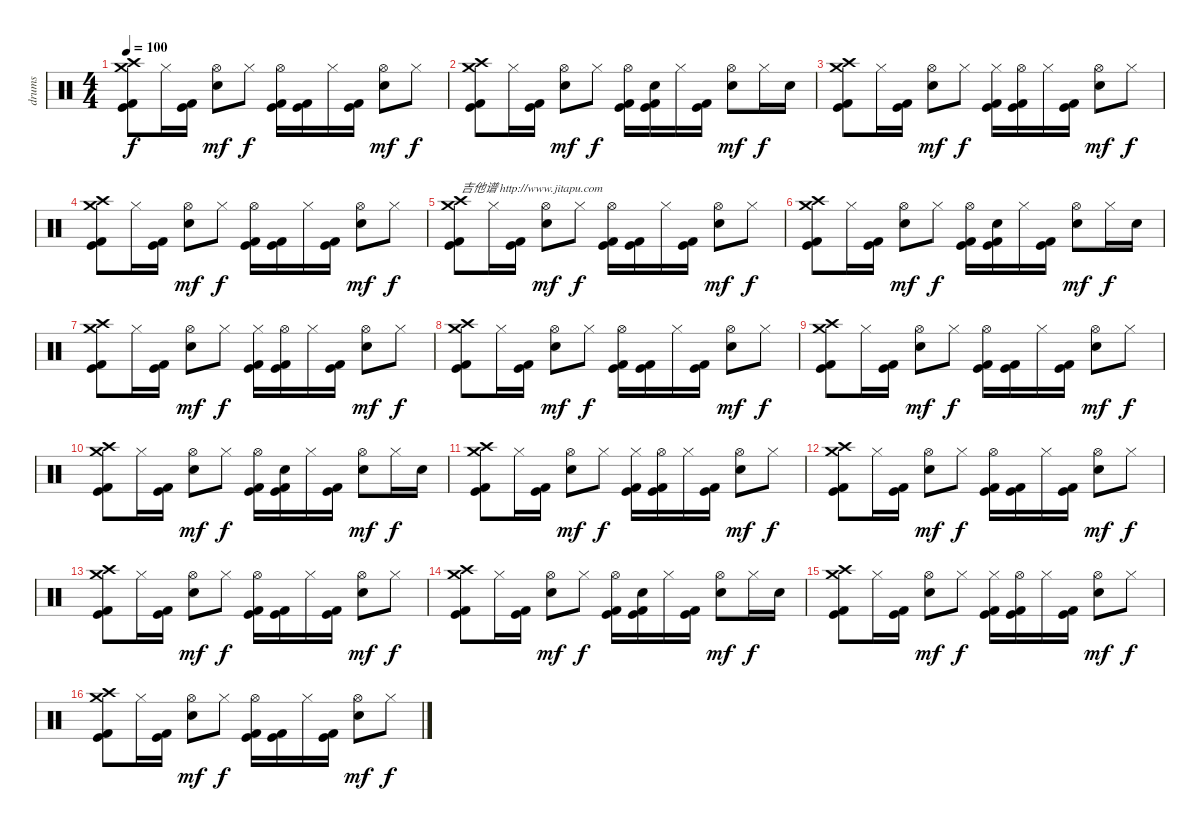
\track ("drums" "drums") {instrument percussion}
\staff {score}
\articulation defaults
\ts (4 4)
\tempo 100
\clef neutral
\ks c
("Crash high (hit)" "Crash medium (hit)" "Kick (hit) 2" "Kick (hit)").8{dy f} "Hi-Hat (closed)".16 ("Kick (hit) 2" "Kick (hit)").16 ("Hi-Hat (open)" "Electric Snare (hit)").8{dy mf} "Hi-Hat (closed)".8{dy f} ("Hi-Hat (open)" "Kick (hit) 2" "Kick (hit)").16 ("Kick (hit) 2" "Kick (hit)").16 "Hi-Hat (closed)".16 ("Kick (hit) 2" "Kick (hit)").16 ("Hi-Hat (open)" "Electric Snare (hit)").8{dy mf} "Hi-Hat (closed)".8{dy f} |
("Crash high (hit)" "Crash medium (hit)" "Kick (hit) 2" "Kick (hit)").8 "Hi-Hat (closed)".16 ("Kick (hit) 2" "Kick (hit)").16 ("Hi-Hat (open)" "Electric Snare (hit)").8{dy mf} "Hi-Hat (closed)".8{dy f} ("Hi-Hat (open)" "Kick (hit) 2" "Kick (hit)").16 ("Electric Snare (hit)" "Kick (hit) 2" "Kick (hit)").16 "Hi-Hat (closed)".16 ("Kick (hit) 2" "Kick (hit)").16 ("Hi-Hat (open)" "Electric Snare (hit)").8{dy mf} "Hi-Hat (closed)".16{dy f} "Electric Snare (hit)".16 |
("Crash high (hit)" "Crash medium (hit)" "Kick (hit) 2" "Kick (hit)").8 "Hi-Hat (closed)".16 ("Kick (hit) 2" "Kick (hit)").16 ("Hi-Hat (open)" "Electric Snare (hit)").8{dy mf} "Hi-Hat (closed)".8{dy f} ("Hi-Hat (closed)" "Kick (hit) 2" "Kick (hit)").16 ("Hi-Hat (open)" "Kick (hit) 2" "Kick (hit)").16 "Hi-Hat (closed)".16 ("Kick (hit) 2" "Kick (hit)").16 ("Hi-Hat (open)" "Electric Snare (hit)").8{dy mf} "Hi-Hat (closed)".8{dy f} |
("Crash high (hit)" "Crash medium (hit)" "Kick (hit) 2" "Kick (hit)").8 "Hi-Hat (closed)".16 ("Kick (hit) 2" "Kick (hit)").16 ("Hi-Hat (open)" "Electric Snare (hit)").8{dy mf} "Hi-Hat (closed)".8{dy f} ("Hi-Hat (open)" "Kick (hit) 2" "Kick (hit)").16 ("Kick (hit) 2" "Kick (hit)").16 "Hi-Hat (closed)".16 ("Kick (hit) 2" "Kick (hit)").16 ("Hi-Hat (open)" "Electric Snare (hit)").8{dy mf} "Hi-Hat (closed)".8{dy f} |
("Crash high (hit)" "Crash medium (hit)" "Kick (hit) 2" "Kick (hit)").8{txt "吉他谱 http://www.jitapu.com"} "Hi-Hat (closed)".16 ("Kick (hit) 2" "Kick (hit)").16 ("Hi-Hat (open)" "Electric Snare (hit)").8{dy mf} "Hi-Hat (closed)".8{dy f} ("Hi-Hat (open)" "Kick (hit) 2" "Kick (hit)").16 ("Kick (hit) 2" "Kick (hit)").16 "Hi-Hat (closed)".16 ("Kick (hit) 2" "Kick (hit)").16 ("Hi-Hat (open)" "Electric Snare (hit)").8{dy mf} "Hi-Hat (closed)".8{dy f} |
("Crash high (hit)" "Crash medium (hit)" "Kick (hit) 2" "Kick (hit)").8 "Hi-Hat (closed)".16 ("Kick (hit) 2" "Kick (hit)").16 ("Hi-Hat (open)" "Electric Snare (hit)").8{dy mf} "Hi-Hat (closed)".8{dy f} ("Hi-Hat (open)" "Kick (hit) 2" "Kick (hit)").16 ("Electric Snare (hit)" "Kick (hit) 2" "Kick (hit)").16 "Hi-Hat (closed)".16 ("Kick (hit) 2" "Kick (hit)").16 ("Hi-Hat (open)" "Electric Snare (hit)").8{dy mf} "Hi-Hat (closed)".16{dy f} "Electric Snare (hit)".16 |
("Crash high (hit)" "Crash medium (hit)" "Kick (hit) 2" "Kick (hit)").8 "Hi-Hat (closed)".16 ("Kick (hit) 2" "Kick (hit)").16 ("Hi-Hat (open)" "Electric Snare (hit)").8{dy mf} "Hi-Hat (closed)".8{dy f} ("Hi-Hat (closed)" "Kick (hit) 2" "Kick (hit)").16 ("Hi-Hat (open)" "Kick (hit) 2" "Kick (hit)").16 "Hi-Hat (closed)".16 ("Kick (hit) 2" "Kick (hit)").16 ("Hi-Hat (open)" "Electric Snare (hit)").8{dy mf} "Hi-Hat (closed)".8{dy f} |
("Crash high (hit)" "Crash medium (hit)" "Kick (hit) 2" "Kick (hit)").8 "Hi-Hat (closed)".16 ("Kick (hit) 2" "Kick (hit)").16 ("Hi-Hat (open)" "Electric Snare (hit)").8{dy mf} "Hi-Hat (closed)".8{dy f} ("Hi-Hat (open)" "Kick (hit) 2" "Kick (hit)").16 ("Kick (hit) 2" "Kick (hit)").16 "Hi-Hat (closed)".16 ("Kick (hit) 2" "Kick (hit)").16 ("Hi-Hat (open)" "Electric Snare (hit)").8{dy mf} "Hi-Hat (closed)".8{dy f} |
("Crash high (hit)" "Crash medium (hit)" "Kick (hit) 2" "Kick (hit)").8 "Hi-Hat (closed)".16 ("Kick (hit) 2" "Kick (hit)").16 ("Hi-Hat (open)" "Electric Snare (hit)").8{dy mf} "Hi-Hat (closed)".8{dy f} ("Hi-Hat (open)" "Kick (hit) 2" "Kick (hit)").16 ("Kick (hit) 2" "Kick (hit)").16 "Hi-Hat (closed)".16 ("Kick (hit) 2" "Kick (hit)").16 ("Hi-Hat (open)" "Electric Snare (hit)").8{dy mf} "Hi-Hat (closed)".8{dy f} |
("Crash high (hit)" "Crash medium (hit)" "Kick (hit) 2" "Kick (hit)").8 "Hi-Hat (closed)".16 ("Kick (hit) 2" "Kick (hit)").16 ("Hi-Hat (open)" "Electric Snare (hit)").8{dy mf} "Hi-Hat (closed)".8{dy f} ("Hi-Hat (open)" "Kick (hit) 2" "Kick (hit)").16 ("Electric Snare (hit)" "Kick (hit) 2" "Kick (hit)").16 "Hi-Hat (closed)".16 ("Kick (hit) 2" "Kick (hit)").16 ("Hi-Hat (open)" "Electric Snare (hit)").8{dy mf} "Hi-Hat (closed)".16{dy f} "Electric Snare (hit)".16 |
("Crash high (hit)" "Crash medium (hit)" "Kick (hit) 2" "Kick (hit)").8 "Hi-Hat (closed)".16 ("Kick (hit) 2" "Kick (hit)").16 ("Hi-Hat (open)" "Electric Snare (hit)").8{dy mf} "Hi-Hat (closed)".8{dy f} ("Hi-Hat (closed)" "Kick (hit) 2" "Kick (hit)").16 ("Hi-Hat (open)" "Kick (hit) 2" "Kick (hit)").16 "Hi-Hat (closed)".16 ("Kick (hit) 2" "Kick (hit)").16 ("Hi-Hat (open)" "Electric Snare (hit)").8{dy mf} "Hi-Hat (closed)".8{dy f} |
("Crash high (hit)" "Crash medium (hit)" "Kick (hit) 2" "Kick (hit)").8 "Hi-Hat (closed)".16 ("Kick (hit) 2" "Kick (hit)").16 ("Hi-Hat (open)" "Electric Snare (hit)").8{dy mf} "Hi-Hat (closed)".8{dy f} ("Hi-Hat (open)" "Kick (hit) 2" "Kick (hit)").16 ("Kick (hit) 2" "Kick (hit)").16 "Hi-Hat (closed)".16 ("Kick (hit) 2" "Kick (hit)").16 ("Hi-Hat (open)" "Electric Snare (hit)").8{dy mf} "Hi-Hat (closed)".8{dy f} |
("Crash high (hit)" "Crash medium (hit)" "Kick (hit) 2" "Kick (hit)").8 "Hi-Hat (closed)".16 ("Kick (hit) 2" "Kick (hit)").16 ("Hi-Hat (open)" "Electric Snare (hit)").8{dy mf} "Hi-Hat (closed)".8{dy f} ("Hi-Hat (open)" "Kick (hit) 2" "Kick (hit)").16 ("Kick (hit) 2" "Kick (hit)").16 "Hi-Hat (closed)".16 ("Kick (hit) 2" "Kick (hit)").16 ("Hi-Hat (open)" "Electric Snare (hit)").8{dy mf} "Hi-Hat (closed)".8{dy f} |
("Crash high (hit)" "Crash medium (hit)" "Kick (hit) 2" "Kick (hit)").8 "Hi-Hat (closed)".16 ("Kick (hit) 2" "Kick (hit)").16 ("Hi-Hat (open)" "Electric Snare (hit)").8{dy mf} "Hi-Hat (closed)".8{dy f} ("Hi-Hat (open)" "Kick (hit) 2" "Kick (hit)").16 ("Electric Snare (hit)" "Kick (hit) 2" "Kick (hit)").16 "Hi-Hat (closed)".16 ("Kick (hit) 2" "Kick (hit)").16 ("Hi-Hat (open)" "Electric Snare (hit)").8{dy mf} "Hi-Hat (closed)".16{dy f} "Electric Snare (hit)".16 |
("Crash high (hit)" "Crash medium (hit)" "Kick (hit) 2" "Kick (hit)").8 "Hi-Hat (closed)".16 ("Kick (hit) 2" "Kick (hit)").16 ("Hi-Hat (open)" "Electric Snare (hit)").8{dy mf} "Hi-Hat (closed)".8{dy f} ("Hi-Hat (closed)" "Kick (hit) 2" "Kick (hit)").16 ("Hi-Hat (open)" "Kick (hit) 2" "Kick (hit)").16 "Hi-Hat (closed)".16 ("Kick (hit) 2" "Kick (hit)").16 ("Hi-Hat (open)" "Electric Snare (hit)").8{dy mf} "Hi-Hat (closed)".8{dy f} |
("Crash high (hit)" "Crash medium (hit)" "Kick (hit) 2" "Kick (hit)").8 "Hi-Hat (closed)".16 ("Kick (hit) 2" "Kick (hit)").16 ("Hi-Hat (open)" "Electric Snare (hit)").8{dy mf} "Hi-Hat (closed)".8{dy f} ("Hi-Hat (open)" "Kick (hit) 2" "Kick (hit)").16 ("Kick (hit) 2" "Kick (hit)").16 "Hi-Hat (closed)".16 ("Kick (hit) 2" "Kick (hit)").16 ("Hi-Hat (open)" "Electric Snare (hit)").8{dy mf} "Hi-Hat (closed)".8{dy f}
